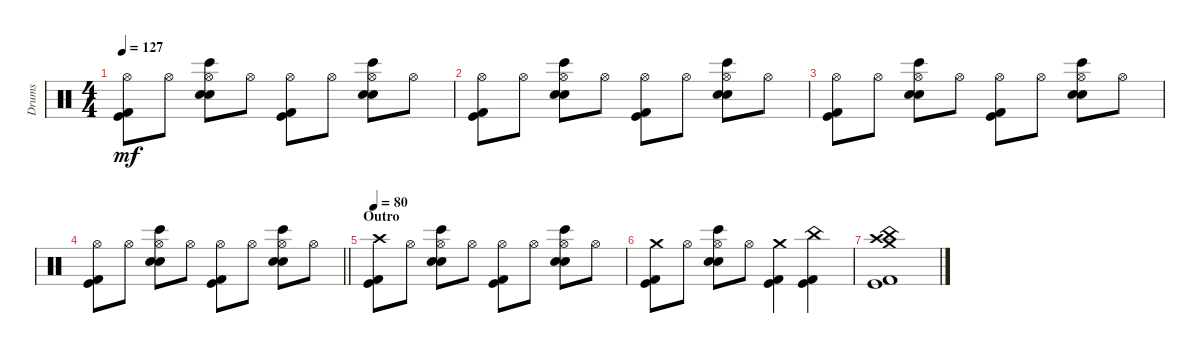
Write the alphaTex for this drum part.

\track ("Drums" "Drums") {instrument percussion}
\staff {score}
\articulation defaults
\ts (4 4)
\tempo 127
\clef neutral
\ks c
("Hi-Hat (open)" "Kick (hit) 2" "Kick (hit)").8{dy mf} "Hi-Hat (open)".8 ("Hi-Hat (open)" "Bongo High (hit)" "Snare (hit) 2" "Electric Snare (hit)").8 "Hi-Hat (open)".8 ("Hi-Hat (open)" "Kick (hit) 2" "Kick (hit)").8 "Hi-Hat (open)".8 ("Hi-Hat (open)" "Bongo High (hit)" "Snare (hit) 2" "Electric Snare (hit)").8 "Hi-Hat (open)".8 |
("Hi-Hat (open)" "Kick (hit) 2" "Kick (hit)").8 "Hi-Hat (open)".8 ("Hi-Hat (open)" "Bongo High (hit)" "Snare (hit) 2" "Electric Snare (hit)").8 "Hi-Hat (open)".8 ("Hi-Hat (open)" "Kick (hit) 2" "Kick (hit)").8 "Hi-Hat (open)".8 ("Hi-Hat (open)" "Bongo High (hit)" "Snare (hit) 2" "Electric Snare (hit)").8 "Hi-Hat (open)".8 |
("Hi-Hat (open)" "Kick (hit) 2" "Kick (hit)").8 "Hi-Hat (open)".8 ("Hi-Hat (open)" "Bongo High (hit)" "Snare (hit) 2" "Electric Snare (hit)").8 "Hi-Hat (open)".8 ("Hi-Hat (open)" "Kick (hit) 2" "Kick (hit)").8 "Hi-Hat (open)".8 ("Hi-Hat (open)" "Bongo High (hit)" "Snare (hit) 2" "Electric Snare (hit)").8 "Hi-Hat (open)".8 |
\barLineRight lightlight
("Hi-Hat (open)" "Kick (hit) 2" "Kick (hit)").8 "Hi-Hat (open)".8 ("Hi-Hat (open)" "Bongo High (hit)" "Snare (hit) 2" "Electric Snare (hit)").8 "Hi-Hat (open)".8 ("Hi-Hat (open)" "Kick (hit) 2" "Kick (hit)").8 "Hi-Hat (open)".8 ("Hi-Hat (open)" "Bongo High (hit)" "Snare (hit) 2" "Electric Snare (hit)").8 "Hi-Hat (open)".8 |
\section ("" "Outro")
\tempo 80
("Crash high (hit)" "Kick (hit) 2" "Kick (hit)").8 "Hi-Hat (open)".8 ("Hi-Hat (open)" "Bongo High (hit)" "Snare (hit) 2" "Electric Snare (hit)").8 "Hi-Hat (open)".8 ("Hi-Hat (open)" "Kick (hit) 2" "Kick (hit)").8 "Hi-Hat (open)".8 ("Hi-Hat (open)" "Bongo High (hit)" "Snare (hit) 2" "Electric Snare (hit)").8 "Hi-Hat (open)".8 |
("Crash medium (hit)" "Kick (hit) 2" "Kick (hit)").8 "Hi-Hat (open)".8 ("Hi-Hat (open)" "Bongo High (hit)" "Snare (hit) 2" "Electric Snare (hit)").8 "Hi-Hat (open)".8 ("Crash medium (hit)" "Kick (hit) 2" "Kick (hit)").4 ("China (hit)" "Kick (hit) 2" "Kick (hit)").4 |
("Crash high (hit)" "Crash medium (hit)" "China (hit)" "Kick (hit) 2" "Kick (hit)").1
